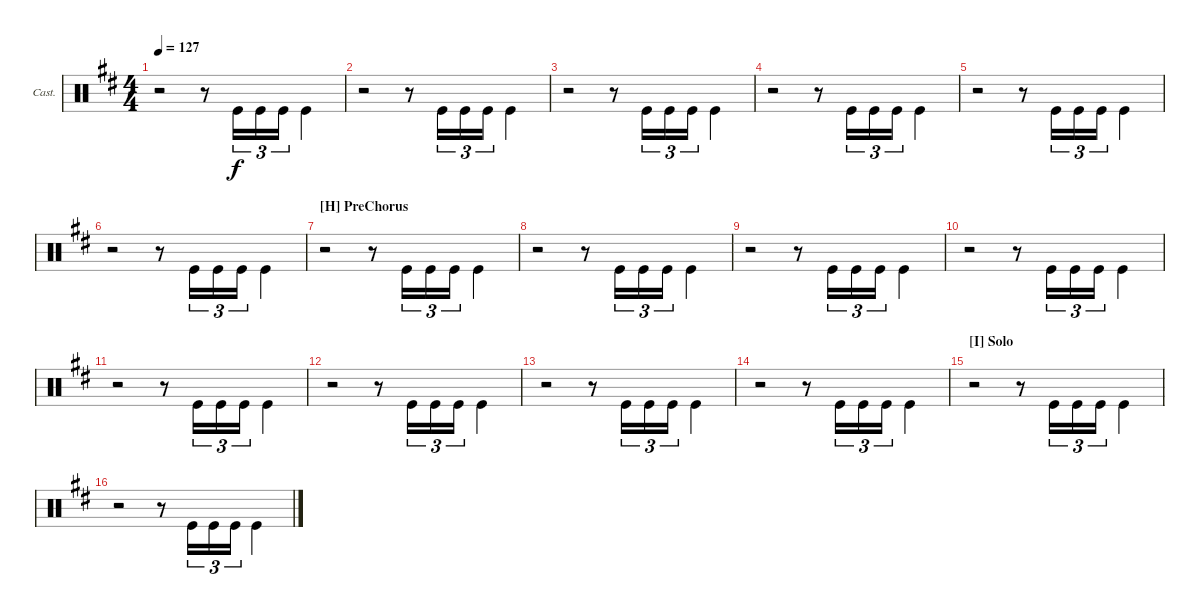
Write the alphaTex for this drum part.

\bracketExtendMode groupsimilarinstruments
\firstSystemTrackNameOrientation horizontal
\otherSystemsTrackNameOrientation horizontal
\track ("Castanets" "Cast.") {instrument percussion}
\staff {score}
\articulation defaults
\ts (4 4)
\tempo 127
\clef neutral
\scale
0.5
\ks d
r.2{dy f beam invert} r.8{beam invert} "Kick (hit)".16{tu (3 2) beam invert} "Kick (hit)".16{tu (3 2)} "Kick (hit)".16{tu (3 2)} "Kick (hit)".4{beam invert} |
\scale
0.5 r.2{beam invert} r.8{beam invert} "Kick (hit)".16{tu (3 2) beam invert} "Kick (hit)".16{tu (3 2)} "Kick (hit)".16{tu (3 2)} "Kick (hit)".4{beam invert} |
\scale
0.5 r.2{beam invert} r.8{beam invert} "Kick (hit)".16{tu (3 2) beam invert} "Kick (hit)".16{tu (3 2)} "Kick (hit)".16{tu (3 2)} "Kick (hit)".4{beam invert} |
\scale
0.5 r.2{beam invert} r.8{beam invert} "Kick (hit)".16{tu (3 2) beam invert} "Kick (hit)".16{tu (3 2)} "Kick (hit)".16{tu (3 2)} "Kick (hit)".4{beam invert} |
\scale
0.5 r.2{beam invert} r.8{beam invert} "Kick (hit)".16{tu (3 2) beam invert} "Kick (hit)".16{tu (3 2)} "Kick (hit)".16{tu (3 2)} "Kick (hit)".4{beam invert} |
\scale
0.5 r.2{beam invert} r.8{beam invert} "Kick (hit)".16{tu (3 2) beam invert} "Kick (hit)".16{tu (3 2)} "Kick (hit)".16{tu (3 2)} "Kick (hit)".4{beam invert} |
\section ("H" "PreChorus")
\scale
0.5 r.2{beam invert} r.8{beam invert} "Kick (hit)".16{tu (3 2) beam invert} "Kick (hit)".16{tu (3 2)} "Kick (hit)".16{tu (3 2)} "Kick (hit)".4{beam invert} |
\scale
0.5 r.2{beam invert} r.8{beam invert} "Kick (hit)".16{tu (3 2) beam invert} "Kick (hit)".16{tu (3 2)} "Kick (hit)".16{tu (3 2)} "Kick (hit)".4{beam invert} |
\scale
0.5 r.2{beam invert} r.8{beam invert} "Kick (hit)".16{tu (3 2) beam invert} "Kick (hit)".16{tu (3 2)} "Kick (hit)".16{tu (3 2)} "Kick (hit)".4{beam invert} |
\scale
0.5 r.2{beam invert} r.8{beam invert} "Kick (hit)".16{tu (3 2) beam invert} "Kick (hit)".16{tu (3 2)} "Kick (hit)".16{tu (3 2)} "Kick (hit)".4{beam invert} |
\scale
0.5 r.2{beam invert} r.8{beam invert} "Kick (hit)".16{tu (3 2) beam invert} "Kick (hit)".16{tu (3 2)} "Kick (hit)".16{tu (3 2)} "Kick (hit)".4{beam invert} |
\scale
0.5 r.2{beam invert} r.8{beam invert} "Kick (hit)".16{tu (3 2) beam invert} "Kick (hit)".16{tu (3 2)} "Kick (hit)".16{tu (3 2)} "Kick (hit)".4{beam invert} |
\scale
0.5 r.2{beam invert} r.8{beam invert} "Kick (hit)".16{tu (3 2) beam invert} "Kick (hit)".16{tu (3 2)} "Kick (hit)".16{tu (3 2)} "Kick (hit)".4{beam invert} |
\scale
0.5 r.2{beam invert} r.8{beam invert} "Kick (hit)".16{tu (3 2) beam invert} "Kick (hit)".16{tu (3 2)} "Kick (hit)".16{tu (3 2)} "Kick (hit)".4{beam invert} |
\section ("I" "Solo")
\scale
0.5 r.2{beam invert} r.8{beam invert} "Kick (hit)".16{tu (3 2) beam invert} "Kick (hit)".16{tu (3 2)} "Kick (hit)".16{tu (3 2)} "Kick (hit)".4{beam invert} |
\scale
0.5 r.2{beam invert} r.8{beam invert} "Kick (hit)".16{tu (3 2) beam invert} "Kick (hit)".16{tu (3 2)} "Kick (hit)".16{tu (3 2)} "Kick (hit)".4{beam invert}
